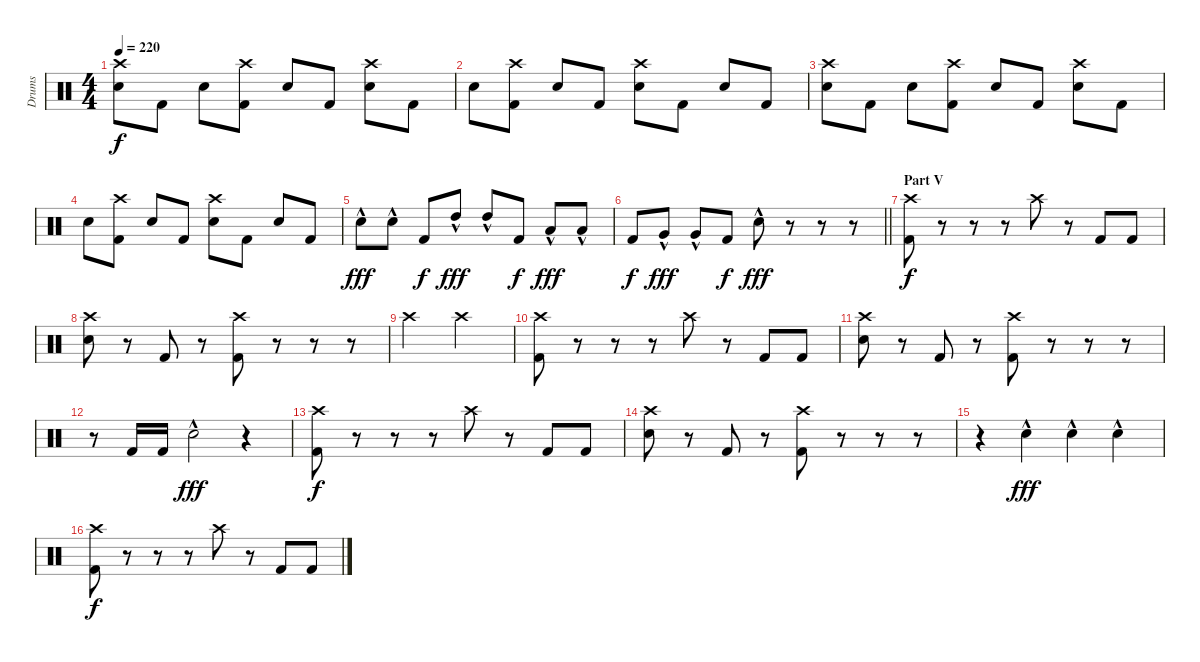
\track ("Drums" "Drums") {instrument percussion}
\staff {score}
\articulation defaults
\ts (4 4)
\tempo 220
\clef neutral
\ks c
("Crash high (hit)" "Electric Snare (hit)").8{dy f} "Kick (hit) 2".8 "Electric Snare (hit)".8 ("Crash high (hit)" "Kick (hit) 2").8 "Electric Snare (hit)".8 "Kick (hit) 2".8 ("Crash high (hit)" "Electric Snare (hit)").8 "Kick (hit) 2".8 |
"Electric Snare (hit)".8 ("Crash high (hit)" "Kick (hit) 2").8 "Electric Snare (hit)".8 "Kick (hit) 2".8 ("Crash high (hit)" "Electric Snare (hit)").8 "Kick (hit) 2".8 "Electric Snare (hit)".8 "Kick (hit) 2".8 |
("Crash high (hit)" "Electric Snare (hit)").8 "Kick (hit) 2".8 "Electric Snare (hit)".8 ("Crash high (hit)" "Kick (hit) 2").8 "Electric Snare (hit)".8 "Kick (hit) 2".8 ("Crash high (hit)" "Electric Snare (hit)").8 "Kick (hit) 2".8 |
"Electric Snare (hit)".8 ("Crash high (hit)" "Kick (hit) 2").8 "Electric Snare (hit)".8 "Kick (hit) 2".8 ("Crash high (hit)" "Electric Snare (hit)").8 "Kick (hit) 2".8 "Electric Snare (hit)".8 "Kick (hit) 2".8 |
"Electric Snare (hit)"{hac}.8{dy fff} "Electric Snare (hit)"{hac}.8 "Kick (hit) 2".8{dy f} "High Tom (hit)"{hac}.8{dy fff} "High Tom (hit)"{hac}.8 "Kick (hit) 2".8{dy f} "Low Tom (hit)"{hac}.8{dy fff} "Low Tom (hit)"{hac}.8 |
\barLineRight lightlight "Kick (hit) 2".8{dy f} "Very Low Tom (hit)"{hac}.8{dy fff} "Very Low Tom (hit)"{hac}.8 "Kick (hit) 2".8{dy f} "Electric Snare (hit)"{hac}.8{dy fff}
r.8 r.8 r.8 |
\section ("" "Part V")
("Crash high (hit)" "Kick (hit) 2").8{dy f} r.8 r.8 r.8 "Crash high (hit)".8 r.8 "Kick (hit) 2".8 "Kick (hit) 2".8 |
("Crash high (hit)" "Electric Snare (hit)").8 r.8 "Kick (hit) 2".8 r.8 ("Crash high (hit)" "Kick (hit) 2").8 r.8 r.8 r.8 |
"Crash high (hit)".2 "Crash high (hit)".2 |
("Crash high (hit)" "Kick (hit) 2").8 r.8 r.8 r.8 "Crash high (hit)".8 r.8 "Kick (hit) 2".8 "Kick (hit) 2".8 |
("Crash high (hit)" "Electric Snare (hit)").8 r.8 "Kick (hit) 2".8 r.8 ("Crash high (hit)" "Kick (hit) 2").8 r.8 r.8 r.8 |
r.8 "Kick (hit) 2".16 "Kick (hit) 2".16 "Electric Snare (hit)"{hac}.2{dy fff} r.4 |
("Crash high (hit)" "Kick (hit) 2").8{dy f} r.8 r.8 r.8 "Crash high (hit)".8 r.8 "Kick (hit) 2".8 "Kick (hit) 2".8 |
("Crash high (hit)" "Electric Snare (hit)").8 r.8 "Kick (hit) 2".8 r.8 ("Crash high (hit)" "Kick (hit) 2").8 r.8 r.8 r.8 |
r.4 "Electric Snare (hit)"{hac}.4{dy fff} "Electric Snare (hit)"{hac}.4 "Electric Snare (hit)"{hac}.4 |
("Crash high (hit)" "Kick (hit) 2").8{dy f} r.8 r.8 r.8 "Crash high (hit)".8 r.8 "Kick (hit) 2".8 "Kick (hit) 2".8
